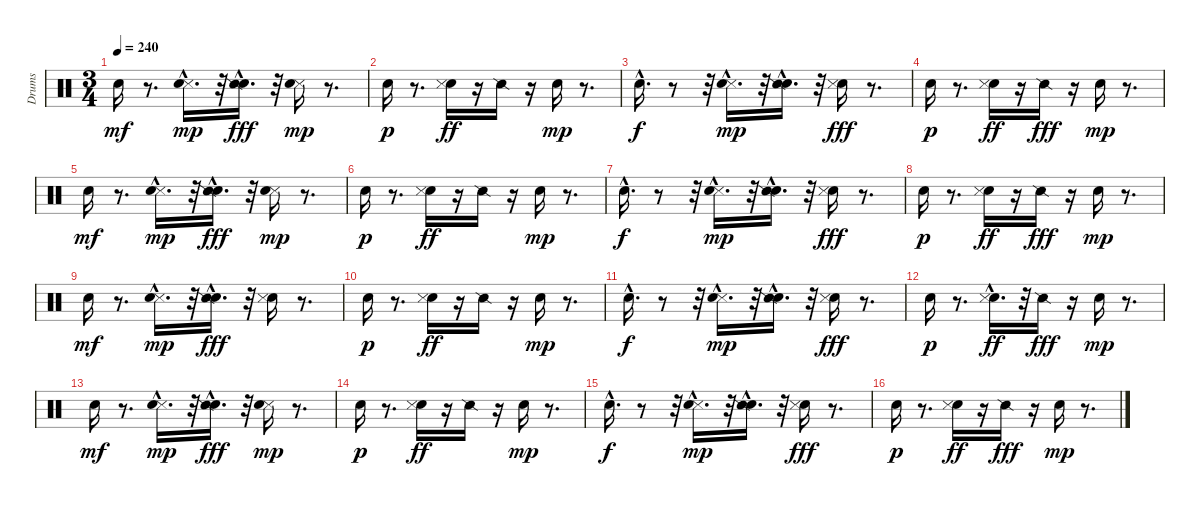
\track ("Drums" "Drums") {instrument percussion}
\staff {score}
\articulation defaults
\ts (3 4)
\tempo 240
\clef neutral
\ks c "Electric Snare (hit)".16{dy mf}
r.8{d} ("Snare (side stick) 3"{hac} "Electric Snare (hit)").16{d dy mp} r.32 ("Electric Snare (hit)" "Snare (side stick) 2"{hac}).16{d dy fff} r.32 ("Snare (side stick) 3" "Electric Snare (hit)").16{dy mp} r.8{d} |
"Electric Snare (hit)".16{dy p} r.8{d} ("Electric Snare (hit)" "Snare (side stick) 3").16{dy ff} r.16 "Snare (side stick) 2".16 r.16 "Electric Snare (hit)".16{dy mp} r.8{d} |
"Electric Snare (hit)"{hac}.16{d dy f} r.8 r.32 ("Snare (side stick) 3"{hac} "Electric Snare (hit)").16{d dy mp} r.32 ("Electric Snare (hit)" "Snare (side stick) 2"{hac}).16{d} r.32 ("Electric Snare (hit)" "Snare (side stick) 3").16{dy fff} r.8{d} |
"Electric Snare (hit)".16{dy p} r.8{d} ("Electric Snare (hit)" "Snare (side stick) 3").16{dy ff} r.16 "Snare (side stick) 2".16{dy fff} r.16 "Electric Snare (hit)".16{dy mp} r.8{d} |
"Electric Snare (hit)".16{dy mf} r.8{d} ("Snare (side stick) 3"{hac} "Electric Snare (hit)").16{d dy mp} r.32 ("Electric Snare (hit)" "Snare (side stick) 2"{hac}).16{d dy fff} r.32 ("Snare (side stick) 3" "Electric Snare (hit)").16{dy mp} r.8{d} |
"Electric Snare (hit)".16{dy p} r.8{d} ("Electric Snare (hit)" "Snare (side stick) 3").16{dy ff} r.16 "Snare (side stick) 2".16 r.16 "Electric Snare (hit)".16{dy mp} r.8{d} |
"Electric Snare (hit)"{hac}.16{d dy f} r.8 r.32 ("Snare (side stick) 3"{hac} "Electric Snare (hit)").16{d dy mp} r.32 ("Electric Snare (hit)" "Snare (side stick) 2"{hac}).16{d} r.32 ("Electric Snare (hit)" "Snare (side stick) 3").16{dy fff} r.8{d} |
"Electric Snare (hit)".16{dy p} r.8{d} ("Electric Snare (hit)" "Snare (side stick) 3").16{dy ff} r.16 "Snare (side stick) 2".16{dy fff} r.16 "Electric Snare (hit)".16{dy mp} r.8{d} |
"Electric Snare (hit)".16{dy mf} r.8{d} ("Snare (side stick) 3"{hac} "Electric Snare (hit)").16{d dy mp} r.32 ("Electric Snare (hit)" "Snare (side stick) 2"{hac}).16{d dy fff} r.32 ("Electric Snare (hit)" "Snare (side stick) 3").16 r.8{d} |
"Electric Snare (hit)".16{dy p} r.8{d} ("Electric Snare (hit)" "Snare (side stick) 3").16{dy ff} r.16 "Snare (side stick) 2".16 r.16 "Electric Snare (hit)".16{dy mp} r.8{d} |
"Electric Snare (hit)"{hac}.16{d dy f} r.8 r.32 ("Snare (side stick) 3"{hac} "Electric Snare (hit)").16{d dy mp} r.32 ("Electric Snare (hit)" "Snare (side stick) 2"{hac}).16{d} r.32 ("Electric Snare (hit)" "Snare (side stick) 3").16{dy fff} r.8{d} |
"Electric Snare (hit)".16{dy p} r.8{d} ("Electric Snare (hit)" "Snare (side stick) 3"{hac}).16{d dy ff} r.32 "Snare (side stick) 2".16{dy fff} r.16 "Electric Snare (hit)".16{dy mp} r.8{d} |
"Electric Snare (hit)".16{dy mf} r.8{d} ("Snare (side stick) 3"{hac} "Electric Snare (hit)").16{d dy mp} r.32 ("Electric Snare (hit)" "Snare (side stick) 2"{hac}).16{d dy fff} r.32 ("Snare (side stick) 3" "Electric Snare (hit)").16{dy mp} r.8{d} |
"Electric Snare (hit)".16{dy p} r.8{d} ("Electric Snare (hit)" "Snare (side stick) 3").16{dy ff} r.16 "Snare (side stick) 2".16 r.16 "Electric Snare (hit)".16{dy mp} r.8{d} |
"Electric Snare (hit)"{hac}.16{d dy f} r.8 r.32 ("Snare (side stick) 3"{hac} "Electric Snare (hit)").16{d dy mp} r.32 ("Electric Snare (hit)" "Snare (side stick) 2"{hac}).16{d} r.32 ("Electric Snare (hit)" "Snare (side stick) 3").16{dy fff} r.8{d} |
"Electric Snare (hit)".16{dy p} r.8{d} ("Electric Snare (hit)" "Snare (side stick) 3").16{dy ff} r.16 "Snare (side stick) 2".16{dy fff} r.16 "Electric Snare (hit)".16{dy mp} r.8{d}
